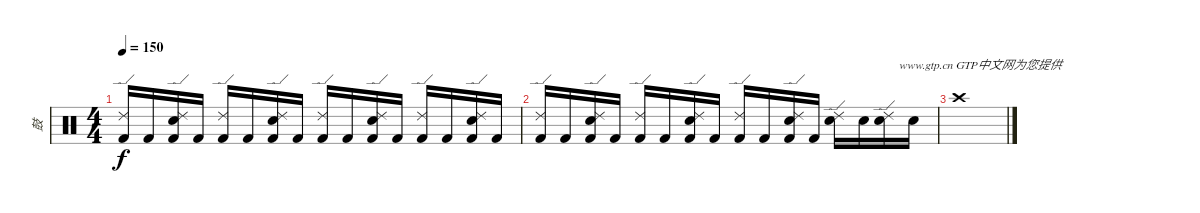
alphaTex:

\track ("鼓" "鼓") {instrument percussion}
\staff {score}
\articulation defaults
\ts (4 4)
\tempo 150
\clef neutral
\ks c
("Ride (edge) 2" "Kick (hit) 2").16{dy f} "Kick (hit) 2".16 ("Ride (edge) 2" "Kick (hit) 2" "Electric Snare (hit)").16 "Kick (hit) 2".16 ("Ride (edge) 2" "Kick (hit) 2").16 "Kick (hit) 2".16 ("Ride (edge) 2" "Kick (hit) 2" "Electric Snare (hit)").16 "Kick (hit) 2".16 ("Ride (edge) 2" "Kick (hit) 2").16 "Kick (hit) 2".16 ("Ride (edge) 2" "Kick (hit) 2" "Electric Snare (hit)").16 "Kick (hit) 2".16 ("Ride (edge) 2" "Kick (hit) 2").16 "Kick (hit) 2".16 ("Ride (edge) 2" "Kick (hit) 2" "Electric Snare (hit)").16 "Kick (hit) 2".16 |
("Ride (edge) 2" "Kick (hit) 2").16 "Kick (hit) 2".16 ("Ride (edge) 2" "Kick (hit) 2" "Electric Snare (hit)").16 "Kick (hit) 2".16 ("Ride (edge) 2" "Kick (hit) 2").16 "Kick (hit) 2".16 ("Ride (edge) 2" "Kick (hit) 2" "Electric Snare (hit)").16 "Kick (hit) 2".16 ("Ride (edge) 2" "Kick (hit) 2").16 "Kick (hit) 2".16 ("Ride (edge) 2" "Kick (hit) 2" "Electric Snare (hit)").16 "Kick (hit) 2".16 ("Ride (edge) 2" "Electric Snare (hit)").16{txt "                    www.gtp.cn GTP中文网为您提供"} "Electric Snare (hit)".16 ("Ride (edge) 2" "Electric Snare (hit)").16 "Electric Snare (hit)".16 |
"Crash high (hit)".1
